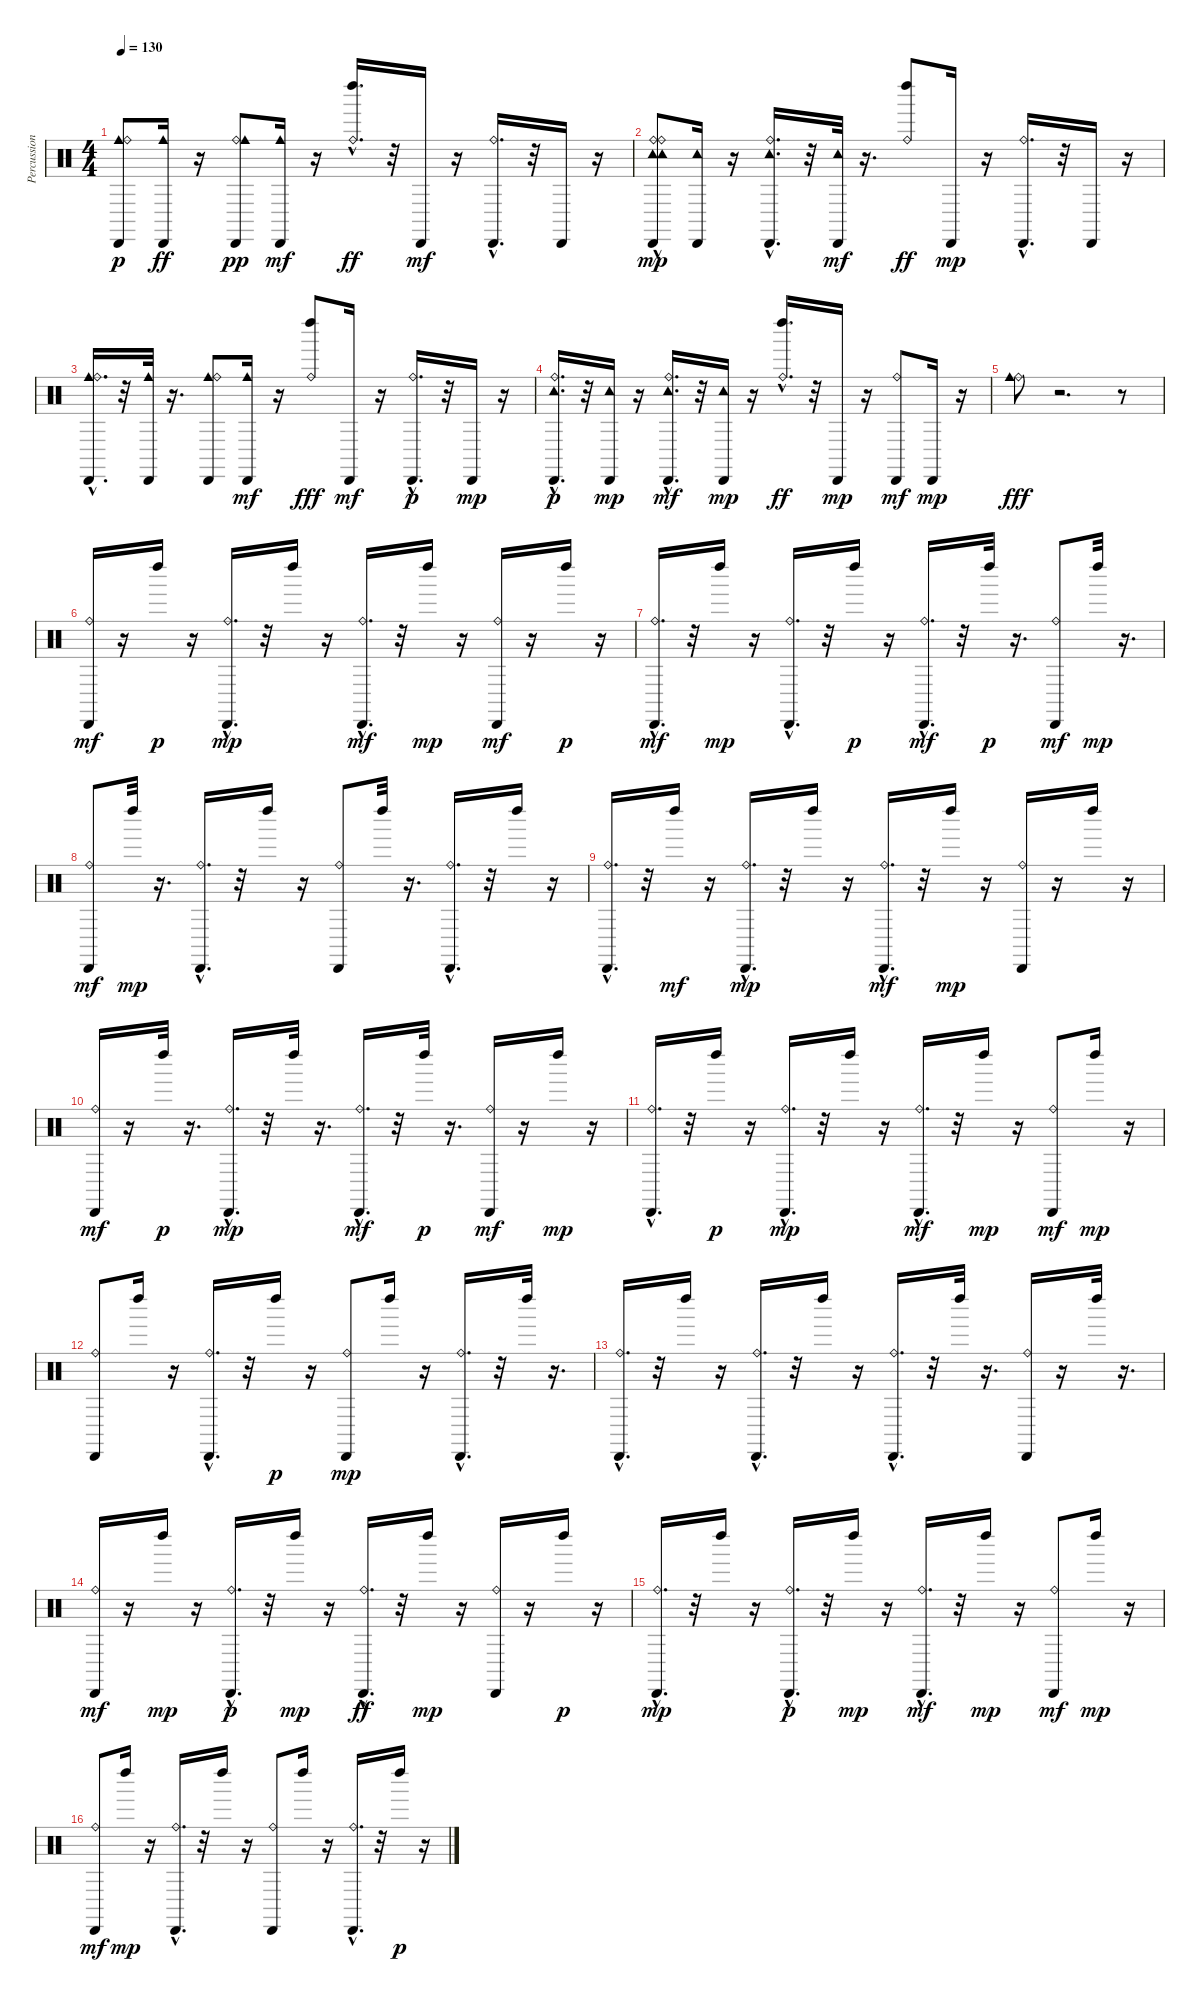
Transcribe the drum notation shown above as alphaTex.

\track ("Percussion" "Percussion") {instrument percussion}
\staff {score}
\articulation defaults
\ts (4 4)
\tempo 130
\clef neutral
\ks c
("Cowbell medium (hit)" "Cabasa (hit)" "Ride (bell)").8{dy p} ("Cabasa (hit)" "Cowbell medium (hit)").16{dy ff} r.16 ("Cabasa (hit)" "Ride (bell)" "Cowbell medium (hit)").8{dy pp} ("Cowbell medium (hit)" "Cabasa (hit)").16{dy mf} r.16 ("Ride (bell)"{hac} "Left Maraca (hit)").16{d dy ff} r.32 "Cabasa (hit)".16{dy mf} r.16 ("Ride (bell)"{hac} "Cabasa (hit)").16{d} r.32 "Cabasa (hit)".16 r.16 |
("Ride (bell)" "Tambourine (hit)" "Tambourine (hit)" "Cabasa (hit)" "Ride (bell)"{hac}).8{dy mp} ("Tambourine (hit)" "Cabasa (hit)").16 r.16 ("Tambourine (hit)" "Cabasa (hit)" "Ride (bell)"{hac}).16{d} r.32 ("Tambourine (hit)" "Cabasa (hit)").32{dy mf} r.16{d} ("Ride (bell)" "Left Maraca (hit)").8{dy ff} "Cabasa (hit)".16{dy mp} r.16 ("Ride (bell)"{hac} "Cabasa (hit)").16{d} r.32 "Cabasa (hit)".16 r.16 |
("Cowbell medium (hit)" "Cabasa (hit)" "Ride (bell)"{hac}).16{d} r.32 ("Cowbell medium (hit)" "Cabasa (hit)").32 r.16{d} ("Cowbell medium (hit)" "Cabasa (hit)" "Ride (bell)").8 ("Cowbell medium (hit)" "Cabasa (hit)").16{dy mf} r.16 ("Ride (bell)" "Left Maraca (hit)").8{dy fff} "Cabasa (hit)".16{dy mf} r.16 ("Cabasa (hit)" "Ride (bell)"{hac}).16{d dy p} r.32 "Cabasa (hit)".16{dy mp} r.16 |
("Tambourine (hit)" "Cabasa (hit)" "Ride (bell)"{hac}).16{d dy p} r.32 ("Tambourine (hit)" "Cabasa (hit)").16{dy mp} r.16 ("Ride (bell)"{hac} "Tambourine (hit)" "Cabasa (hit)").16{d dy mf} r.32 ("Tambourine (hit)" "Cabasa (hit)").16{dy mp} r.16 ("Ride (bell)"{hac} "Left Maraca (hit)").16{d dy ff} r.32 "Cabasa (hit)".16{dy mp} r.16 ("Ride (bell)" "Cabasa (hit)").8{dy mf} "Cabasa (hit)".16{dy mp} r.16 |
("Ride (bell)" "Cowbell medium (hit)").8{dy fff} r.2{d} r.8 |
("Ride (bell)" "Cabasa (hit)").16{dy mf} r.16 "Left Maraca (hit)".16{dy p} r.16 ("Ride (bell)"{hac} "Cabasa (hit)").16{d dy mp} r.32 "Left Maraca (hit)".16 r.16 ("Ride (bell)"{hac} "Cabasa (hit)").16{d dy mf} r.32 "Left Maraca (hit)".16{dy mp} r.16 ("Cabasa (hit)" "Ride (bell)").16{dy mf} r.16 "Left Maraca (hit)".16{dy p} r.16 |
("Ride (bell)"{hac} "Cabasa (hit)").16{d dy mf} r.32 "Left Maraca (hit)".16{dy mp} r.16 ("Cabasa (hit)" "Ride (bell)"{hac}).16{d} r.32 "Left Maraca (hit)".16{dy p} r.16 ("Cabasa (hit)" "Ride (bell)"{hac}).16{d dy mf} r.32 "Left Maraca (hit)".32{dy p} r.16{d} ("Cabasa (hit)" "Ride (bell)").8{dy mf} "Left Maraca (hit)".32{dy mp} r.16{d} |
("Ride (bell)" "Cabasa (hit)").8{dy mf} "Left Maraca (hit)".32{dy mp} r.16{d} ("Cabasa (hit)" "Ride (bell)"{hac}).16{d} r.32 "Left Maraca (hit)".16 r.16 ("Cabasa (hit)" "Ride (bell)").8 "Left Maraca (hit)".32 r.16{d} ("Cabasa (hit)" "Ride (bell)"{hac}).16{d} r.32 "Left Maraca (hit)".16 r.16 |
("Cabasa (hit)" "Ride (bell)"{hac}).16{d} r.32 "Left Maraca (hit)".16{dy mf} r.16 ("Cabasa (hit)" "Ride (bell)"{hac}).16{d dy mp} r.32 "Left Maraca (hit)".16 r.16 ("Ride (bell)"{hac} "Cabasa (hit)").16{d dy mf} r.32 "Left Maraca (hit)".16{dy mp} r.16 ("Cabasa (hit)" "Ride (bell)").16 r.16 "Left Maraca (hit)".16 r.16 |
("Cabasa (hit)" "Ride (bell)").16{dy mf} r.16 "Left Maraca (hit)".32{dy p} r.16{d} ("Cabasa (hit)" "Ride (bell)"{hac}).16{d dy mp} r.32 "Left Maraca (hit)".32 r.16{d} ("Cabasa (hit)" "Ride (bell)"{hac}).16{d dy mf} r.32 "Left Maraca (hit)".32{dy p} r.16{d} ("Cabasa (hit)" "Ride (bell)").16{dy mf} r.16 "Left Maraca (hit)".16{dy mp} r.16 |
("Cabasa (hit)" "Ride (bell)"{hac}).16{d} r.32 "Left Maraca (hit)".16{dy p} r.16 ("Cabasa (hit)" "Ride (bell)"{hac}).16{d dy mp} r.32 "Left Maraca (hit)".16 r.16 ("Cabasa (hit)" "Ride (bell)"{hac}).16{d dy mf} r.32 "Left Maraca (hit)".16{dy mp} r.16 ("Cabasa (hit)" "Ride (bell)").8{dy mf} "Left Maraca (hit)".16{dy mp} r.16 |
("Cabasa (hit)" "Ride (bell)").8 "Left Maraca (hit)".16 r.16 ("Cabasa (hit)" "Ride (bell)"{hac}).16{d} r.32 "Left Maraca (hit)".16{dy p} r.16 ("Cabasa (hit)" "Ride (bell)").8{dy mp} "Left Maraca (hit)".16 r.16 ("Cabasa (hit)" "Ride (bell)"{hac}).16{d} r.32 "Left Maraca (hit)".32 r.16{d} |
("Cabasa (hit)" "Ride (bell)"{hac}).16{d} r.32 "Left Maraca (hit)".16 r.16 ("Cabasa (hit)" "Ride (bell)"{hac}).16{d} r.32 "Left Maraca (hit)".16 r.16 ("Ride (bell)"{hac} "Cabasa (hit)").16{d} r.32 "Left Maraca (hit)".32 r.16{d} ("Ride (bell)" "Cabasa (hit)").16 r.16 "Left Maraca (hit)".32 r.16{d} |
("Ride (bell)" "Cabasa (hit)").16{dy mf} r.16 "Left Maraca (hit)".16{dy mp} r.16 ("Ride (bell)"{hac} "Cabasa (hit)").16{d dy p} r.32 "Left Maraca (hit)".16{dy mp} r.16 ("Ride (bell)"{hac} "Cabasa (hit)").16{d dy ff} r.32 "Left Maraca (hit)".16{dy mp} r.16 ("Ride (bell)" "Cabasa (hit)").16 r.16 "Left Maraca (hit)".16{dy p} r.16 |
("Ride (bell)"{hac} "Cabasa (hit)").16{d dy mp} r.32 "Left Maraca (hit)".16 r.16 ("Ride (bell)"{hac} "Cabasa (hit)").16{d dy p} r.32 "Left Maraca (hit)".16{dy mp} r.16 ("Ride (bell)"{hac} "Cabasa (hit)").16{d dy mf} r.32 "Left Maraca (hit)".16{dy mp} r.16 ("Ride (bell)" "Cabasa (hit)").8{dy mf} "Left Maraca (hit)".16{dy mp} r.16 |
("Ride (bell)" "Cabasa (hit)").8{dy mf} "Left Maraca (hit)".16{dy mp} r.16 ("Ride (bell)"{hac} "Cabasa (hit)").16{d} r.32 "Left Maraca (hit)".16 r.16 ("Ride (bell)" "Cabasa (hit)").8 "Left Maraca (hit)".16 r.16 ("Cabasa (hit)" "Ride (bell)"{hac}).16{d} r.32 "Left Maraca (hit)".16{dy p} r.16
